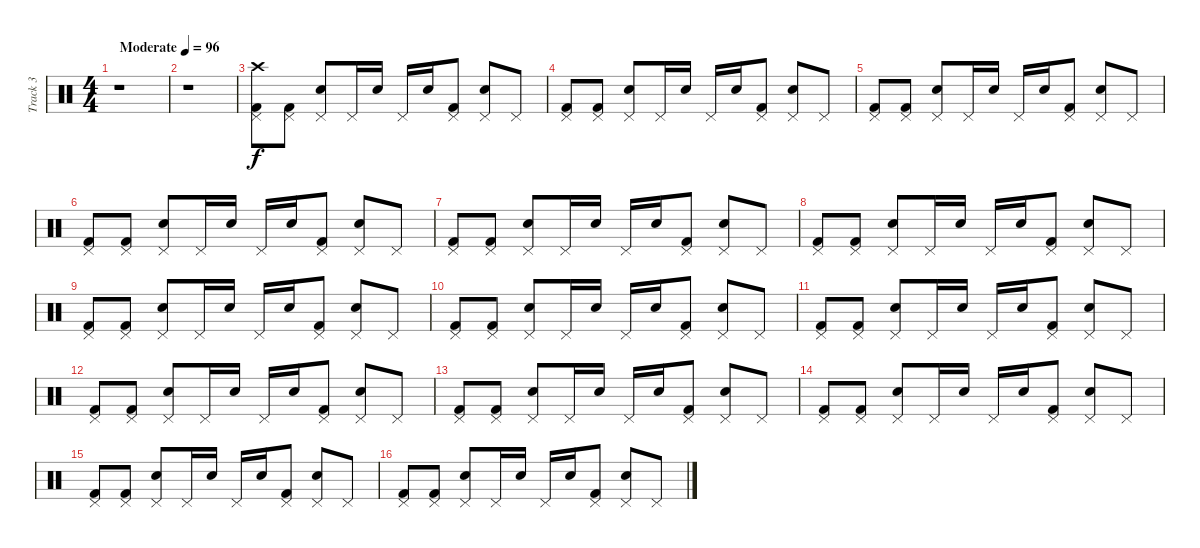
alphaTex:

\track ("Track 3" "Track 3") {instrument percussion}
\staff {score}
\articulation defaults
\ts (4 4)
\tempo (96 "Moderate")
\clef neutral
\ks c
r.1{dy f} |
r.1 |
("Crash high (hit)" "Kick (hit) 2" "Pedal Hi-Hat (hit)").8 ("Kick (hit) 2" "Pedal Hi-Hat (hit)").8 ("Electric Snare (hit)" "Pedal Hi-Hat (hit)").8 "Pedal Hi-Hat (hit)".16 "Electric Snare (hit)".16 "Pedal Hi-Hat (hit)".16 "Electric Snare (hit)".16 ("Kick (hit) 2" "Pedal Hi-Hat (hit)").8 ("Electric Snare (hit)" "Pedal Hi-Hat (hit)").8 "Pedal Hi-Hat (hit)".8 |
("Kick (hit) 2" "Pedal Hi-Hat (hit)").8 ("Kick (hit) 2" "Pedal Hi-Hat (hit)").8 ("Electric Snare (hit)" "Pedal Hi-Hat (hit)").8 "Pedal Hi-Hat (hit)".16 "Electric Snare (hit)".16 "Pedal Hi-Hat (hit)".16 "Electric Snare (hit)".16 ("Kick (hit) 2" "Pedal Hi-Hat (hit)").8 ("Electric Snare (hit)" "Pedal Hi-Hat (hit)").8 "Pedal Hi-Hat (hit)".8 |
("Kick (hit) 2" "Pedal Hi-Hat (hit)").8 ("Kick (hit) 2" "Pedal Hi-Hat (hit)").8 ("Electric Snare (hit)" "Pedal Hi-Hat (hit)").8 "Pedal Hi-Hat (hit)".16 "Electric Snare (hit)".16 "Pedal Hi-Hat (hit)".16 "Electric Snare (hit)".16 ("Kick (hit) 2" "Pedal Hi-Hat (hit)").8 ("Electric Snare (hit)" "Pedal Hi-Hat (hit)").8 "Pedal Hi-Hat (hit)".8 |
("Kick (hit) 2" "Pedal Hi-Hat (hit)").8 ("Kick (hit) 2" "Pedal Hi-Hat (hit)").8 ("Electric Snare (hit)" "Pedal Hi-Hat (hit)").8 "Pedal Hi-Hat (hit)".16 "Electric Snare (hit)".16 "Pedal Hi-Hat (hit)".16 "Electric Snare (hit)".16 ("Kick (hit) 2" "Pedal Hi-Hat (hit)").8 ("Electric Snare (hit)" "Pedal Hi-Hat (hit)").8 "Pedal Hi-Hat (hit)".8 |
("Kick (hit) 2" "Pedal Hi-Hat (hit)").8 ("Kick (hit) 2" "Pedal Hi-Hat (hit)").8 ("Electric Snare (hit)" "Pedal Hi-Hat (hit)").8 "Pedal Hi-Hat (hit)".16 "Electric Snare (hit)".16 "Pedal Hi-Hat (hit)".16 "Electric Snare (hit)".16 ("Kick (hit) 2" "Pedal Hi-Hat (hit)").8 ("Electric Snare (hit)" "Pedal Hi-Hat (hit)").8 "Pedal Hi-Hat (hit)".8 |
("Kick (hit) 2" "Pedal Hi-Hat (hit)").8 ("Kick (hit) 2" "Pedal Hi-Hat (hit)").8 ("Electric Snare (hit)" "Pedal Hi-Hat (hit)").8 "Pedal Hi-Hat (hit)".16 "Electric Snare (hit)".16 "Pedal Hi-Hat (hit)".16 "Electric Snare (hit)".16 ("Kick (hit) 2" "Pedal Hi-Hat (hit)").8 ("Electric Snare (hit)" "Pedal Hi-Hat (hit)").8 "Pedal Hi-Hat (hit)".8 |
("Kick (hit) 2" "Pedal Hi-Hat (hit)").8 ("Kick (hit) 2" "Pedal Hi-Hat (hit)").8 ("Electric Snare (hit)" "Pedal Hi-Hat (hit)").8 "Pedal Hi-Hat (hit)".16 "Electric Snare (hit)".16 "Pedal Hi-Hat (hit)".16 "Electric Snare (hit)".16 ("Kick (hit) 2" "Pedal Hi-Hat (hit)").8 ("Electric Snare (hit)" "Pedal Hi-Hat (hit)").8 "Pedal Hi-Hat (hit)".8 |
("Kick (hit) 2" "Pedal Hi-Hat (hit)").8 ("Kick (hit) 2" "Pedal Hi-Hat (hit)").8 ("Electric Snare (hit)" "Pedal Hi-Hat (hit)").8 "Pedal Hi-Hat (hit)".16 "Electric Snare (hit)".16 "Pedal Hi-Hat (hit)".16 "Electric Snare (hit)".16 ("Kick (hit) 2" "Pedal Hi-Hat (hit)").8 ("Electric Snare (hit)" "Pedal Hi-Hat (hit)").8 "Pedal Hi-Hat (hit)".8 |
("Kick (hit) 2" "Pedal Hi-Hat (hit)").8 ("Kick (hit) 2" "Pedal Hi-Hat (hit)").8 ("Electric Snare (hit)" "Pedal Hi-Hat (hit)").8 "Pedal Hi-Hat (hit)".16 "Electric Snare (hit)".16 "Pedal Hi-Hat (hit)".16 "Electric Snare (hit)".16 ("Kick (hit) 2" "Pedal Hi-Hat (hit)").8 ("Electric Snare (hit)" "Pedal Hi-Hat (hit)").8 "Pedal Hi-Hat (hit)".8 |
("Kick (hit) 2" "Pedal Hi-Hat (hit)").8 ("Kick (hit) 2" "Pedal Hi-Hat (hit)").8 ("Electric Snare (hit)" "Pedal Hi-Hat (hit)").8 "Pedal Hi-Hat (hit)".16 "Electric Snare (hit)".16 "Pedal Hi-Hat (hit)".16 "Electric Snare (hit)".16 ("Kick (hit) 2" "Pedal Hi-Hat (hit)").8 ("Electric Snare (hit)" "Pedal Hi-Hat (hit)").8 "Pedal Hi-Hat (hit)".8 |
("Kick (hit) 2" "Pedal Hi-Hat (hit)").8 ("Kick (hit) 2" "Pedal Hi-Hat (hit)").8 ("Electric Snare (hit)" "Pedal Hi-Hat (hit)").8 "Pedal Hi-Hat (hit)".16 "Electric Snare (hit)".16 "Pedal Hi-Hat (hit)".16 "Electric Snare (hit)".16 ("Kick (hit) 2" "Pedal Hi-Hat (hit)").8 ("Electric Snare (hit)" "Pedal Hi-Hat (hit)").8 "Pedal Hi-Hat (hit)".8 |
("Kick (hit) 2" "Pedal Hi-Hat (hit)").8 ("Kick (hit) 2" "Pedal Hi-Hat (hit)").8 ("Electric Snare (hit)" "Pedal Hi-Hat (hit)").8 "Pedal Hi-Hat (hit)".16 "Electric Snare (hit)".16 "Pedal Hi-Hat (hit)".16 "Electric Snare (hit)".16 ("Kick (hit) 2" "Pedal Hi-Hat (hit)").8 ("Electric Snare (hit)" "Pedal Hi-Hat (hit)").8 "Pedal Hi-Hat (hit)".8 |
("Kick (hit) 2" "Pedal Hi-Hat (hit)").8 ("Kick (hit) 2" "Pedal Hi-Hat (hit)").8 ("Electric Snare (hit)" "Pedal Hi-Hat (hit)").8 "Pedal Hi-Hat (hit)".16 "Electric Snare (hit)".16 "Pedal Hi-Hat (hit)".16 "Electric Snare (hit)".16 ("Kick (hit) 2" "Pedal Hi-Hat (hit)").8 ("Electric Snare (hit)" "Pedal Hi-Hat (hit)").8 "Pedal Hi-Hat (hit)".8 |
("Kick (hit) 2" "Pedal Hi-Hat (hit)").8 ("Kick (hit) 2" "Pedal Hi-Hat (hit)").8 ("Electric Snare (hit)" "Pedal Hi-Hat (hit)").8 "Pedal Hi-Hat (hit)".16 "Electric Snare (hit)".16 "Pedal Hi-Hat (hit)".16 "Electric Snare (hit)".16 ("Kick (hit) 2" "Pedal Hi-Hat (hit)").8 ("Electric Snare (hit)" "Pedal Hi-Hat (hit)").8 "Pedal Hi-Hat (hit)".8
